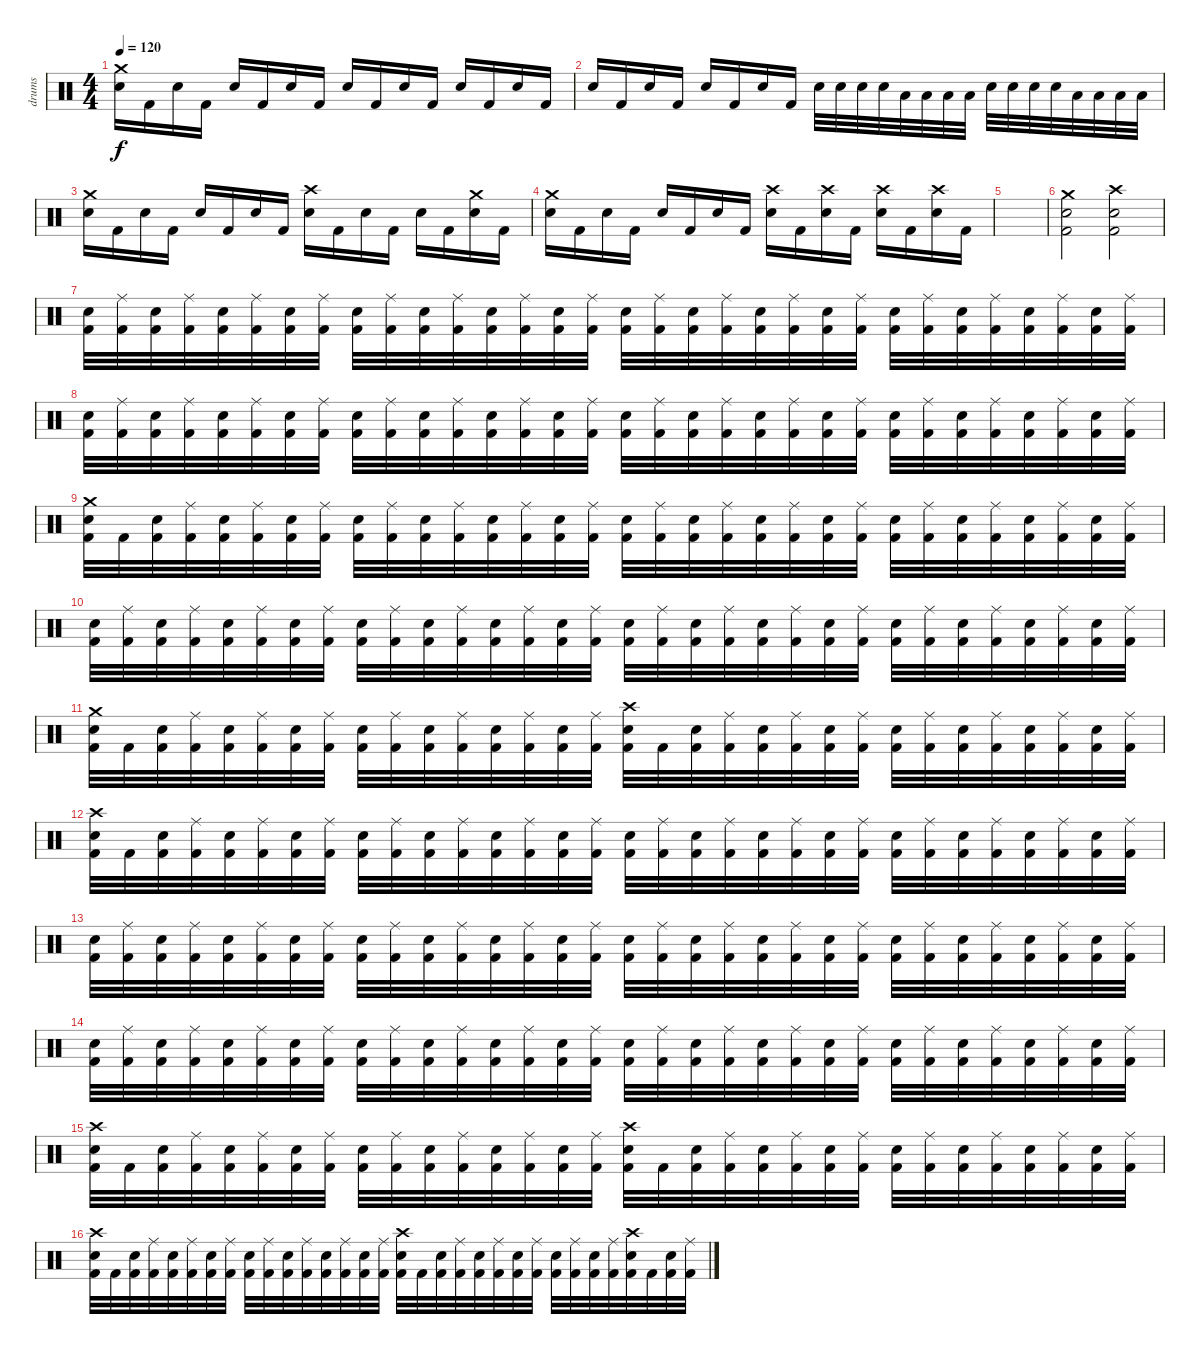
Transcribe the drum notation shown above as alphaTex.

\track ("drums" "drums") {instrument percussion}
\staff {score}
\articulation defaults
\ts (4 4)
\tempo 120
\clef neutral
\ks c
("Crash medium (hit)" "Electric Snare (hit)").16{dy f} "Kick (hit) 2".16 "Electric Snare (hit)".16 "Kick (hit) 2".16 "Electric Snare (hit)".16 "Kick (hit) 2".16 "Electric Snare (hit)".16 "Kick (hit) 2".16 "Electric Snare (hit)".16 "Kick (hit) 2".16 "Electric Snare (hit)".16 "Kick (hit) 2".16 "Electric Snare (hit)".16 "Kick (hit) 2".16 "Electric Snare (hit)".16 "Kick (hit) 2".16 |
"Electric Snare (hit)".16 "Kick (hit) 2".16 "Electric Snare (hit)".16 "Kick (hit) 2".16 "Electric Snare (hit)".16 "Kick (hit) 2".16 "Electric Snare (hit)".16 "Kick (hit) 2".16 "Electric Snare (hit)".32 "Electric Snare (hit)".32 "Electric Snare (hit)".32 "Electric Snare (hit)".32 "Low Tom (hit)".32 "Low Tom (hit)".32 "Low Tom (hit)".32 "Low Tom (hit)".32 "Electric Snare (hit)".32 "Electric Snare (hit)".32 "Electric Snare (hit)".32 "Electric Snare (hit)".32 "Low Tom (hit)".32 "Low Tom (hit)".32 "Low Tom (hit)".32 "Low Tom (hit)".32 |
("Crash medium (hit)" "Electric Snare (hit)").16 "Kick (hit) 2".16 "Electric Snare (hit)".16 "Kick (hit) 2".16 "Electric Snare (hit)".16 "Kick (hit) 2".16 "Electric Snare (hit)".16 "Kick (hit) 2".16 ("Crash high (hit)" "Electric Snare (hit)").16 "Kick (hit) 2".16 "Electric Snare (hit)".16 "Kick (hit) 2".16 "Electric Snare (hit)".16 "Kick (hit) 2".16 ("Crash medium (hit)" "Electric Snare (hit)").16 "Kick (hit) 2".16 |
("Crash medium (hit)" "Electric Snare (hit)").16 "Kick (hit) 2".16 "Electric Snare (hit)".16 "Kick (hit) 2".16 "Electric Snare (hit)".16 "Kick (hit) 2".16 "Electric Snare (hit)".16 "Kick (hit) 2".16 ("Crash high (hit)" "Electric Snare (hit)").16 "Kick (hit) 2".16 ("Crash high (hit)" "Electric Snare (hit)").16 "Kick (hit) 2".16 ("Crash high (hit)" "Electric Snare (hit)").16 "Kick (hit) 2".16 ("Crash high (hit)" "Electric Snare (hit)").16 "Kick (hit) 2".16 |
|
("Crash medium (hit)" "Electric Snare (hit)" "Kick (hit) 2").2 ("Crash high (hit)" "Electric Snare (hit)" "Kick (hit) 2").2 |
("Electric Snare (hit)" "Kick (hit) 2").32 ("Ride (middle)" "Kick (hit) 2").32 ("Electric Snare (hit)" "Kick (hit) 2").32 ("Ride (middle)" "Kick (hit) 2").32 ("Electric Snare (hit)" "Kick (hit) 2").32 ("Ride (middle)" "Kick (hit) 2").32 ("Electric Snare (hit)" "Kick (hit) 2").32 ("Ride (middle)" "Kick (hit) 2").32 ("Electric Snare (hit)" "Kick (hit) 2").32 ("Ride (middle)" "Kick (hit) 2").32 ("Electric Snare (hit)" "Kick (hit) 2").32 ("Ride (middle)" "Kick (hit) 2").32 ("Electric Snare (hit)" "Kick (hit) 2").32 ("Ride (middle)" "Kick (hit) 2").32 ("Electric Snare (hit)" "Kick (hit) 2").32 ("Ride (middle)" "Kick (hit) 2").32 ("Electric Snare (hit)" "Kick (hit) 2").32 ("Ride (middle)" "Kick (hit) 2").32 ("Electric Snare (hit)" "Kick (hit) 2").32 ("Ride (middle)" "Kick (hit) 2").32 ("Electric Snare (hit)" "Kick (hit) 2").32 ("Ride (middle)" "Kick (hit) 2").32 ("Electric Snare (hit)" "Kick (hit) 2").32 ("Ride (middle)" "Kick (hit) 2").32 ("Electric Snare (hit)" "Kick (hit) 2").32 ("Ride (middle)" "Kick (hit) 2").32 ("Electric Snare (hit)" "Kick (hit) 2").32 ("Ride (middle)" "Kick (hit) 2").32 ("Electric Snare (hit)" "Kick (hit) 2").32 ("Ride (middle)" "Kick (hit) 2").32 ("Electric Snare (hit)" "Kick (hit) 2").32 ("Ride (middle)" "Kick (hit) 2").32 |
("Electric Snare (hit)" "Kick (hit) 2").32 ("Ride (middle)" "Kick (hit) 2").32 ("Electric Snare (hit)" "Kick (hit) 2").32 ("Ride (middle)" "Kick (hit) 2").32 ("Electric Snare (hit)" "Kick (hit) 2").32 ("Ride (middle)" "Kick (hit) 2").32 ("Electric Snare (hit)" "Kick (hit) 2").32 ("Ride (middle)" "Kick (hit) 2").32 ("Electric Snare (hit)" "Kick (hit) 2").32 ("Ride (middle)" "Kick (hit) 2").32 ("Electric Snare (hit)" "Kick (hit) 2").32 ("Ride (middle)" "Kick (hit) 2").32 ("Electric Snare (hit)" "Kick (hit) 2").32 ("Ride (middle)" "Kick (hit) 2").32 ("Electric Snare (hit)" "Kick (hit) 2").32 ("Ride (middle)" "Kick (hit) 2").32 ("Electric Snare (hit)" "Kick (hit) 2").32 ("Ride (middle)" "Kick (hit) 2").32 ("Electric Snare (hit)" "Kick (hit) 2").32 ("Ride (middle)" "Kick (hit) 2").32 ("Electric Snare (hit)" "Kick (hit) 2").32 ("Ride (middle)" "Kick (hit) 2").32 ("Electric Snare (hit)" "Kick (hit) 2").32 ("Ride (middle)" "Kick (hit) 2").32 ("Electric Snare (hit)" "Kick (hit) 2").32 ("Ride (middle)" "Kick (hit) 2").32 ("Electric Snare (hit)" "Kick (hit) 2").32 ("Ride (middle)" "Kick (hit) 2").32 ("Electric Snare (hit)" "Kick (hit) 2").32 ("Ride (middle)" "Kick (hit) 2").32 ("Electric Snare (hit)" "Kick (hit) 2").32 ("Ride (middle)" "Kick (hit) 2").32 |
("Crash medium (hit)" "Electric Snare (hit)" "Kick (hit) 2").32 "Kick (hit) 2".32 ("Electric Snare (hit)" "Kick (hit) 2").32 ("Ride (middle)" "Kick (hit) 2").32 ("Electric Snare (hit)" "Kick (hit) 2").32 ("Ride (middle)" "Kick (hit) 2").32 ("Electric Snare (hit)" "Kick (hit) 2").32 ("Ride (middle)" "Kick (hit) 2").32 ("Electric Snare (hit)" "Kick (hit) 2").32 ("Ride (middle)" "Kick (hit) 2").32 ("Electric Snare (hit)" "Kick (hit) 2").32 ("Ride (middle)" "Kick (hit) 2").32 ("Electric Snare (hit)" "Kick (hit) 2").32 ("Ride (middle)" "Kick (hit) 2").32 ("Electric Snare (hit)" "Kick (hit) 2").32 ("Ride (middle)" "Kick (hit) 2").32 ("Electric Snare (hit)" "Kick (hit) 2").32 ("Ride (middle)" "Kick (hit) 2").32 ("Electric Snare (hit)" "Kick (hit) 2").32 ("Ride (middle)" "Kick (hit) 2").32 ("Electric Snare (hit)" "Kick (hit) 2").32 ("Ride (middle)" "Kick (hit) 2").32 ("Electric Snare (hit)" "Kick (hit) 2").32 ("Ride (middle)" "Kick (hit) 2").32 ("Electric Snare (hit)" "Kick (hit) 2").32 ("Ride (middle)" "Kick (hit) 2").32 ("Electric Snare (hit)" "Kick (hit) 2").32 ("Ride (middle)" "Kick (hit) 2").32 ("Electric Snare (hit)" "Kick (hit) 2").32 ("Ride (middle)" "Kick (hit) 2").32 ("Electric Snare (hit)" "Kick (hit) 2").32 ("Ride (middle)" "Kick (hit) 2").32 |
("Electric Snare (hit)" "Kick (hit) 2").32 ("Ride (middle)" "Kick (hit) 2").32 ("Electric Snare (hit)" "Kick (hit) 2").32 ("Ride (middle)" "Kick (hit) 2").32 ("Electric Snare (hit)" "Kick (hit) 2").32 ("Ride (middle)" "Kick (hit) 2").32 ("Electric Snare (hit)" "Kick (hit) 2").32 ("Ride (middle)" "Kick (hit) 2").32 ("Electric Snare (hit)" "Kick (hit) 2").32 ("Ride (middle)" "Kick (hit) 2").32 ("Electric Snare (hit)" "Kick (hit) 2").32 ("Ride (middle)" "Kick (hit) 2").32 ("Electric Snare (hit)" "Kick (hit) 2").32 ("Ride (middle)" "Kick (hit) 2").32 ("Electric Snare (hit)" "Kick (hit) 2").32 ("Ride (middle)" "Kick (hit) 2").32 ("Electric Snare (hit)" "Kick (hit) 2").32 ("Ride (middle)" "Kick (hit) 2").32 ("Electric Snare (hit)" "Kick (hit) 2").32 ("Ride (middle)" "Kick (hit) 2").32 ("Electric Snare (hit)" "Kick (hit) 2").32 ("Ride (middle)" "Kick (hit) 2").32 ("Electric Snare (hit)" "Kick (hit) 2").32 ("Ride (middle)" "Kick (hit) 2").32 ("Electric Snare (hit)" "Kick (hit) 2").32 ("Ride (middle)" "Kick (hit) 2").32 ("Electric Snare (hit)" "Kick (hit) 2").32 ("Ride (middle)" "Kick (hit) 2").32 ("Electric Snare (hit)" "Kick (hit) 2").32 ("Ride (middle)" "Kick (hit) 2").32 ("Electric Snare (hit)" "Kick (hit) 2").32 ("Ride (middle)" "Kick (hit) 2").32 |
("Crash medium (hit)" "Electric Snare (hit)" "Kick (hit) 2").32 "Kick (hit) 2".32 ("Electric Snare (hit)" "Kick (hit) 2").32 ("Ride (middle)" "Kick (hit) 2").32 ("Electric Snare (hit)" "Kick (hit) 2").32 ("Ride (middle)" "Kick (hit) 2").32 ("Electric Snare (hit)" "Kick (hit) 2").32 ("Ride (middle)" "Kick (hit) 2").32 ("Electric Snare (hit)" "Kick (hit) 2").32 ("Ride (middle)" "Kick (hit) 2").32 ("Electric Snare (hit)" "Kick (hit) 2").32 ("Ride (middle)" "Kick (hit) 2").32 ("Electric Snare (hit)" "Kick (hit) 2").32 ("Ride (middle)" "Kick (hit) 2").32 ("Electric Snare (hit)" "Kick (hit) 2").32 ("Ride (middle)" "Kick (hit) 2").32 ("Crash high (hit)" "Electric Snare (hit)" "Kick (hit) 2").32 "Kick (hit) 2".32 ("Electric Snare (hit)" "Kick (hit) 2").32 ("Ride (middle)" "Kick (hit) 2").32 ("Electric Snare (hit)" "Kick (hit) 2").32 ("Ride (middle)" "Kick (hit) 2").32 ("Electric Snare (hit)" "Kick (hit) 2").32 ("Ride (middle)" "Kick (hit) 2").32 ("Electric Snare (hit)" "Kick (hit) 2").32 ("Ride (middle)" "Kick (hit) 2").32 ("Electric Snare (hit)" "Kick (hit) 2").32 ("Ride (middle)" "Kick (hit) 2").32 ("Electric Snare (hit)" "Kick (hit) 2").32 ("Ride (middle)" "Kick (hit) 2").32 ("Electric Snare (hit)" "Kick (hit) 2").32 ("Ride (middle)" "Kick (hit) 2").32 |
("Crash high (hit)" "Electric Snare (hit)" "Kick (hit) 2").32 "Kick (hit) 2".32 ("Electric Snare (hit)" "Kick (hit) 2").32 ("Ride (middle)" "Kick (hit) 2").32 ("Electric Snare (hit)" "Kick (hit) 2").32 ("Ride (middle)" "Kick (hit) 2").32 ("Electric Snare (hit)" "Kick (hit) 2").32 ("Ride (middle)" "Kick (hit) 2").32 ("Electric Snare (hit)" "Kick (hit) 2").32 ("Ride (middle)" "Kick (hit) 2").32 ("Electric Snare (hit)" "Kick (hit) 2").32 ("Ride (middle)" "Kick (hit) 2").32 ("Electric Snare (hit)" "Kick (hit) 2").32 ("Ride (middle)" "Kick (hit) 2").32 ("Electric Snare (hit)" "Kick (hit) 2").32 ("Ride (middle)" "Kick (hit) 2").32 ("Electric Snare (hit)" "Kick (hit) 2").32 ("Ride (middle)" "Kick (hit) 2").32 ("Electric Snare (hit)" "Kick (hit) 2").32 ("Ride (middle)" "Kick (hit) 2").32 ("Electric Snare (hit)" "Kick (hit) 2").32 ("Ride (middle)" "Kick (hit) 2").32 ("Electric Snare (hit)" "Kick (hit) 2").32 ("Ride (middle)" "Kick (hit) 2").32 ("Electric Snare (hit)" "Kick (hit) 2").32 ("Ride (middle)" "Kick (hit) 2").32 ("Electric Snare (hit)" "Kick (hit) 2").32 ("Ride (middle)" "Kick (hit) 2").32 ("Electric Snare (hit)" "Kick (hit) 2").32 ("Ride (middle)" "Kick (hit) 2").32 ("Electric Snare (hit)" "Kick (hit) 2").32 ("Ride (middle)" "Kick (hit) 2").32 |
("Electric Snare (hit)" "Kick (hit) 2").32 ("Ride (middle)" "Kick (hit) 2").32 ("Electric Snare (hit)" "Kick (hit) 2").32 ("Ride (middle)" "Kick (hit) 2").32 ("Electric Snare (hit)" "Kick (hit) 2").32 ("Ride (middle)" "Kick (hit) 2").32 ("Electric Snare (hit)" "Kick (hit) 2").32 ("Ride (middle)" "Kick (hit) 2").32 ("Electric Snare (hit)" "Kick (hit) 2").32 ("Ride (middle)" "Kick (hit) 2").32 ("Electric Snare (hit)" "Kick (hit) 2").32 ("Ride (middle)" "Kick (hit) 2").32 ("Electric Snare (hit)" "Kick (hit) 2").32 ("Ride (middle)" "Kick (hit) 2").32 ("Electric Snare (hit)" "Kick (hit) 2").32 ("Ride (middle)" "Kick (hit) 2").32 ("Electric Snare (hit)" "Kick (hit) 2").32 ("Ride (middle)" "Kick (hit) 2").32 ("Electric Snare (hit)" "Kick (hit) 2").32 ("Ride (middle)" "Kick (hit) 2").32 ("Electric Snare (hit)" "Kick (hit) 2").32 ("Ride (middle)" "Kick (hit) 2").32 ("Electric Snare (hit)" "Kick (hit) 2").32 ("Ride (middle)" "Kick (hit) 2").32 ("Electric Snare (hit)" "Kick (hit) 2").32 ("Ride (middle)" "Kick (hit) 2").32 ("Electric Snare (hit)" "Kick (hit) 2").32 ("Ride (middle)" "Kick (hit) 2").32 ("Electric Snare (hit)" "Kick (hit) 2").32 ("Ride (middle)" "Kick (hit) 2").32 ("Electric Snare (hit)" "Kick (hit) 2").32 ("Ride (middle)" "Kick (hit) 2").32 |
("Electric Snare (hit)" "Kick (hit) 2").32 ("Ride (middle)" "Kick (hit) 2").32 ("Electric Snare (hit)" "Kick (hit) 2").32 ("Ride (middle)" "Kick (hit) 2").32 ("Electric Snare (hit)" "Kick (hit) 2").32 ("Ride (middle)" "Kick (hit) 2").32 ("Electric Snare (hit)" "Kick (hit) 2").32 ("Ride (middle)" "Kick (hit) 2").32 ("Electric Snare (hit)" "Kick (hit) 2").32 ("Ride (middle)" "Kick (hit) 2").32 ("Electric Snare (hit)" "Kick (hit) 2").32 ("Ride (middle)" "Kick (hit) 2").32 ("Electric Snare (hit)" "Kick (hit) 2").32 ("Ride (middle)" "Kick (hit) 2").32 ("Electric Snare (hit)" "Kick (hit) 2").32 ("Ride (middle)" "Kick (hit) 2").32 ("Electric Snare (hit)" "Kick (hit) 2").32 ("Ride (middle)" "Kick (hit) 2").32 ("Electric Snare (hit)" "Kick (hit) 2").32 ("Ride (middle)" "Kick (hit) 2").32 ("Electric Snare (hit)" "Kick (hit) 2").32 ("Ride (middle)" "Kick (hit) 2").32 ("Electric Snare (hit)" "Kick (hit) 2").32 ("Ride (middle)" "Kick (hit) 2").32 ("Electric Snare (hit)" "Kick (hit) 2").32 ("Ride (middle)" "Kick (hit) 2").32 ("Electric Snare (hit)" "Kick (hit) 2").32 ("Ride (middle)" "Kick (hit) 2").32 ("Electric Snare (hit)" "Kick (hit) 2").32 ("Ride (middle)" "Kick (hit) 2").32 ("Electric Snare (hit)" "Kick (hit) 2").32 ("Ride (middle)" "Kick (hit) 2").32 |
("Crash high (hit)" "Electric Snare (hit)" "Kick (hit) 2").32 "Kick (hit) 2".32 ("Electric Snare (hit)" "Kick (hit) 2").32 ("Ride (middle)" "Kick (hit) 2").32 ("Electric Snare (hit)" "Kick (hit) 2").32 ("Ride (middle)" "Kick (hit) 2").32 ("Electric Snare (hit)" "Kick (hit) 2").32 ("Ride (middle)" "Kick (hit) 2").32 ("Electric Snare (hit)" "Kick (hit) 2").32 ("Ride (middle)" "Kick (hit) 2").32 ("Electric Snare (hit)" "Kick (hit) 2").32 ("Ride (middle)" "Kick (hit) 2").32 ("Electric Snare (hit)" "Kick (hit) 2").32 ("Ride (middle)" "Kick (hit) 2").32 ("Electric Snare (hit)" "Kick (hit) 2").32 ("Ride (middle)" "Kick (hit) 2").32 ("Crash high (hit)" "Electric Snare (hit)" "Kick (hit) 2").32 "Kick (hit) 2".32 ("Electric Snare (hit)" "Kick (hit) 2").32 ("Ride (middle)" "Kick (hit) 2").32 ("Electric Snare (hit)" "Kick (hit) 2").32 ("Ride (middle)" "Kick (hit) 2").32 ("Electric Snare (hit)" "Kick (hit) 2").32 ("Ride (middle)" "Kick (hit) 2").32 ("Electric Snare (hit)" "Kick (hit) 2").32 ("Ride (middle)" "Kick (hit) 2").32 ("Electric Snare (hit)" "Kick (hit) 2").32 ("Ride (middle)" "Kick (hit) 2").32 ("Electric Snare (hit)" "Kick (hit) 2").32 ("Ride (middle)" "Kick (hit) 2").32 ("Electric Snare (hit)" "Kick (hit) 2").32 ("Ride (middle)" "Kick (hit) 2").32 |
("Crash high (hit)" "Electric Snare (hit)" "Kick (hit) 2").32 "Kick (hit) 2".32 ("Electric Snare (hit)" "Kick (hit) 2").32 ("Ride (middle)" "Kick (hit) 2").32 ("Electric Snare (hit)" "Kick (hit) 2").32 ("Ride (middle)" "Kick (hit) 2").32 ("Electric Snare (hit)" "Kick (hit) 2").32 ("Ride (middle)" "Kick (hit) 2").32 ("Electric Snare (hit)" "Kick (hit) 2").32 ("Ride (middle)" "Kick (hit) 2").32 ("Electric Snare (hit)" "Kick (hit) 2").32 ("Ride (middle)" "Kick (hit) 2").32 ("Electric Snare (hit)" "Kick (hit) 2").32 ("Ride (middle)" "Kick (hit) 2").32 ("Electric Snare (hit)" "Kick (hit) 2").32 ("Ride (middle)" "Kick (hit) 2").32 ("Crash high (hit)" "Electric Snare (hit)" "Kick (hit) 2").32 "Kick (hit) 2".32 ("Electric Snare (hit)" "Kick (hit) 2").32 ("Ride (middle)" "Kick (hit) 2").32 ("Electric Snare (hit)" "Kick (hit) 2").32 ("Ride (middle)" "Kick (hit) 2").32 ("Electric Snare (hit)" "Kick (hit) 2").32 ("Ride (middle)" "Kick (hit) 2").32 ("Electric Snare (hit)" "Kick (hit) 2").32 ("Ride (middle)" "Kick (hit) 2").32 ("Electric Snare (hit)" "Kick (hit) 2").32 ("Ride (middle)" "Kick (hit) 2").32 ("Crash high (hit)" "Electric Snare (hit)" "Kick (hit) 2").32 "Kick (hit) 2".32 ("Electric Snare (hit)" "Kick (hit) 2").32 ("Ride (middle)" "Kick (hit) 2").32
